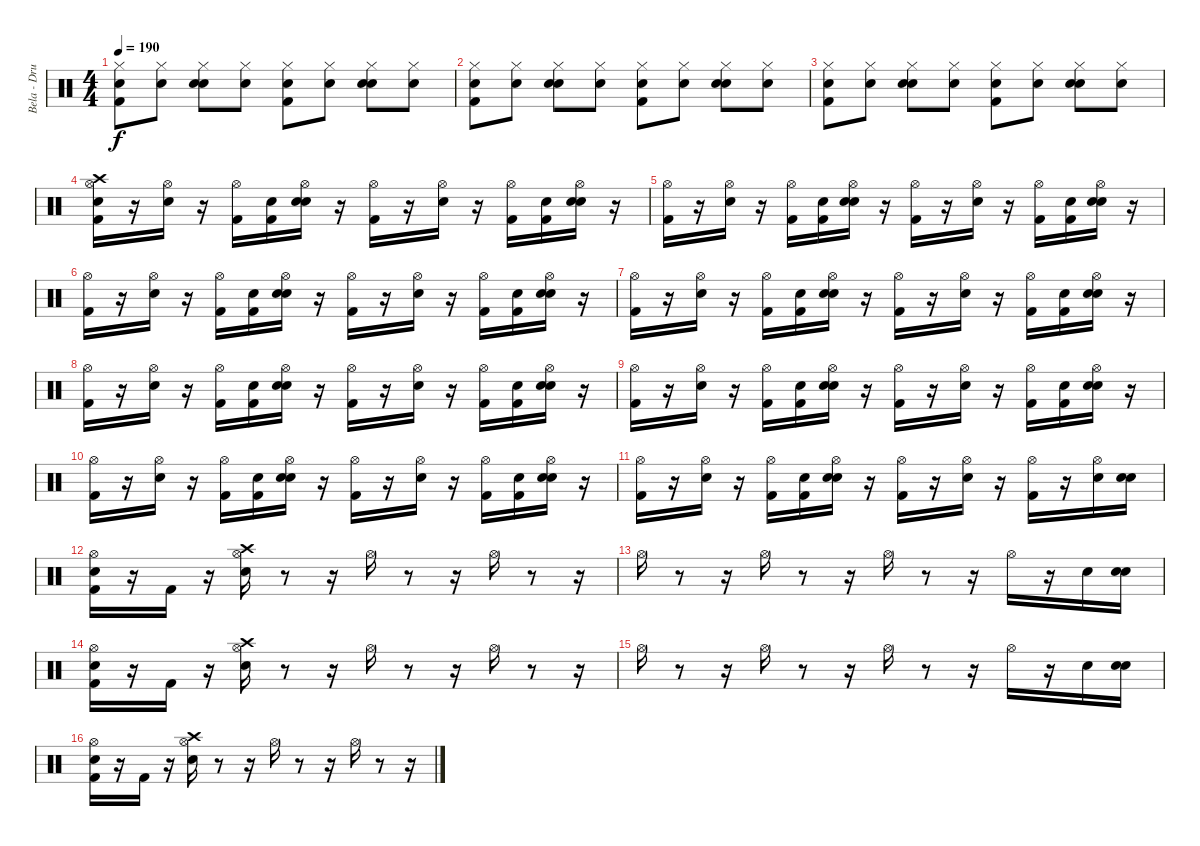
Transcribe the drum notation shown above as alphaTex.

\track ("Bela - Drums" "Bela - Dru") {instrument percussion}
\staff {score}
\articulation defaults
\ts (4 4)
\tempo 190
\clef neutral
\ks c
("Snare (hit)" "Hi-Hat (closed)" "Kick (hit) 2").8{dy f} ("Snare (hit)" "Hi-Hat (closed)").8 ("Snare (hit)" "Hi-Hat (closed)" "Electric Snare (hit)").8 ("Snare (hit)" "Hi-Hat (closed)").8 ("Snare (hit)" "Hi-Hat (closed)" "Kick (hit) 2").8 ("Snare (hit)" "Hi-Hat (closed)").8 ("Snare (hit)" "Hi-Hat (closed)" "Electric Snare (hit)").8 ("Snare (hit)" "Hi-Hat (closed)").8 |
("Snare (hit)" "Hi-Hat (closed)" "Kick (hit) 2").8 ("Snare (hit)" "Hi-Hat (closed)").8 ("Snare (hit)" "Hi-Hat (closed)" "Electric Snare (hit)").8 ("Snare (hit)" "Hi-Hat (closed)").8 ("Snare (hit)" "Hi-Hat (closed)" "Kick (hit) 2").8 ("Snare (hit)" "Hi-Hat (closed)").8 ("Snare (hit)" "Hi-Hat (closed)" "Electric Snare (hit)").8 ("Snare (hit)" "Hi-Hat (closed)").8 |
("Snare (hit)" "Hi-Hat (closed)" "Kick (hit) 2").8 ("Snare (hit)" "Hi-Hat (closed)").8 ("Snare (hit)" "Hi-Hat (closed)" "Electric Snare (hit)").8 ("Snare (hit)" "Hi-Hat (closed)").8 ("Snare (hit)" "Hi-Hat (closed)" "Kick (hit) 2").8 ("Snare (hit)" "Hi-Hat (closed)").8 ("Snare (hit)" "Hi-Hat (closed)" "Electric Snare (hit)").8 ("Snare (hit)" "Hi-Hat (closed)").8 |
("Snare (hit)" "Crash high (hit)" "Hi-Hat (open)" "Kick (hit) 2").16 r.16 ("Hi-Hat (open)" "Electric Snare (hit)").16 r.16 ("Hi-Hat (open)" "Kick (hit) 2").16 ("Snare (hit)" "Kick (hit) 2").16 ("Snare (hit)" "Hi-Hat (open)" "Electric Snare (hit)").16 r.16 ("Kick (hit) 2" "Hi-Hat (open)").16 r.16 ("Hi-Hat (open)" "Electric Snare (hit)").16 r.16 ("Hi-Hat (open)" "Kick (hit) 2").16 ("Snare (hit)" "Kick (hit) 2").16 ("Snare (hit)" "Hi-Hat (open)" "Electric Snare (hit)").16 r.16 |
("Hi-Hat (open)" "Kick (hit) 2").16 r.16 ("Hi-Hat (open)" "Electric Snare (hit)").16 r.16 ("Hi-Hat (open)" "Kick (hit) 2").16 ("Snare (hit)" "Kick (hit) 2").16 ("Snare (hit)" "Hi-Hat (open)" "Electric Snare (hit)").16 r.16 ("Kick (hit) 2" "Hi-Hat (open)").16 r.16 ("Hi-Hat (open)" "Electric Snare (hit)").16 r.16 ("Hi-Hat (open)" "Kick (hit) 2").16 ("Snare (hit)" "Kick (hit) 2").16 ("Snare (hit)" "Hi-Hat (open)" "Electric Snare (hit)").16 r.16 |
("Hi-Hat (open)" "Kick (hit) 2").16 r.16 ("Hi-Hat (open)" "Electric Snare (hit)").16 r.16 ("Hi-Hat (open)" "Kick (hit) 2").16 ("Snare (hit)" "Kick (hit) 2").16 ("Snare (hit)" "Hi-Hat (open)" "Electric Snare (hit)").16 r.16 ("Kick (hit) 2" "Hi-Hat (open)").16 r.16 ("Hi-Hat (open)" "Electric Snare (hit)").16 r.16 ("Hi-Hat (open)" "Kick (hit) 2").16 ("Snare (hit)" "Kick (hit) 2").16 ("Snare (hit)" "Hi-Hat (open)" "Electric Snare (hit)").16 r.16 |
("Hi-Hat (open)" "Kick (hit) 2").16 r.16 ("Hi-Hat (open)" "Electric Snare (hit)").16 r.16 ("Hi-Hat (open)" "Kick (hit) 2").16 ("Snare (hit)" "Kick (hit) 2").16 ("Snare (hit)" "Hi-Hat (open)" "Electric Snare (hit)").16 r.16 ("Kick (hit) 2" "Hi-Hat (open)").16 r.16 ("Hi-Hat (open)" "Electric Snare (hit)").16 r.16 ("Hi-Hat (open)" "Kick (hit) 2").16 ("Snare (hit)" "Kick (hit) 2").16 ("Snare (hit)" "Hi-Hat (open)" "Electric Snare (hit)").16 r.16 |
("Hi-Hat (open)" "Kick (hit) 2").16 r.16 ("Hi-Hat (open)" "Electric Snare (hit)").16 r.16 ("Hi-Hat (open)" "Kick (hit) 2").16 ("Snare (hit)" "Kick (hit) 2").16 ("Snare (hit)" "Hi-Hat (open)" "Electric Snare (hit)").16 r.16 ("Kick (hit) 2" "Hi-Hat (open)").16 r.16 ("Hi-Hat (open)" "Electric Snare (hit)").16 r.16 ("Hi-Hat (open)" "Kick (hit) 2").16 ("Snare (hit)" "Kick (hit) 2").16 ("Snare (hit)" "Hi-Hat (open)" "Electric Snare (hit)").16 r.16 |
("Hi-Hat (open)" "Kick (hit) 2").16 r.16 ("Hi-Hat (open)" "Electric Snare (hit)").16 r.16 ("Hi-Hat (open)" "Kick (hit) 2").16 ("Snare (hit)" "Kick (hit) 2").16 ("Snare (hit)" "Hi-Hat (open)" "Electric Snare (hit)").16 r.16 ("Kick (hit) 2" "Hi-Hat (open)").16 r.16 ("Hi-Hat (open)" "Electric Snare (hit)").16 r.16 ("Hi-Hat (open)" "Kick (hit) 2").16 ("Snare (hit)" "Kick (hit) 2").16 ("Snare (hit)" "Hi-Hat (open)" "Electric Snare (hit)").16 r.16 |
("Hi-Hat (open)" "Kick (hit) 2").16 r.16 ("Hi-Hat (open)" "Electric Snare (hit)").16 r.16 ("Hi-Hat (open)" "Kick (hit) 2").16 ("Snare (hit)" "Kick (hit) 2").16 ("Snare (hit)" "Hi-Hat (open)" "Electric Snare (hit)").16 r.16 ("Kick (hit) 2" "Hi-Hat (open)").16 r.16 ("Hi-Hat (open)" "Electric Snare (hit)").16 r.16 ("Hi-Hat (open)" "Kick (hit) 2").16 ("Snare (hit)" "Kick (hit) 2").16 ("Snare (hit)" "Hi-Hat (open)" "Electric Snare (hit)").16 r.16 |
("Hi-Hat (open)" "Kick (hit) 2").16 r.16 ("Hi-Hat (open)" "Electric Snare (hit)").16 r.16 ("Hi-Hat (open)" "Kick (hit) 2").16 ("Snare (hit)" "Kick (hit) 2").16 ("Snare (hit)" "Hi-Hat (open)" "Electric Snare (hit)").16 r.16 ("Kick (hit) 2" "Hi-Hat (open)").16 r.16 ("Hi-Hat (open)" "Electric Snare (hit)").16 r.16 ("Hi-Hat (open)" "Kick (hit) 2").16 r.16 ("Hi-Hat (open)" "Electric Snare (hit)").16 ("Snare (hit)" "Electric Snare (hit)").16 |
("Snare (hit)" "Hi-Hat (open)" "Kick (hit) 2").16 r.16 "Kick (hit) 2".16 r.16 ("Hi-Hat (open)" "Crash high (hit)" "Electric Snare (hit)").16 r.8 r.16 "Hi-Hat (open)".16 r.8 r.16 "Hi-Hat (open)".16 r.8 r.16 |
"Hi-Hat (open)".16 r.8 r.16 "Hi-Hat (open)".16 r.8 r.16 "Hi-Hat (open)".16 r.8 r.16 "Hi-Hat (open)".16 r.16 "Electric Snare (hit)".16 ("Snare (hit)" "Electric Snare (hit)").16 |
("Snare (hit)" "Hi-Hat (open)" "Kick (hit) 2").16 r.16 "Kick (hit) 2".16 r.16 ("Hi-Hat (open)" "Crash high (hit)" "Electric Snare (hit)").16 r.8 r.16 "Hi-Hat (open)".16 r.8 r.16 "Hi-Hat (open)".16 r.8 r.16 |
"Hi-Hat (open)".16 r.8 r.16 "Hi-Hat (open)".16 r.8 r.16 "Hi-Hat (open)".16 r.8 r.16 "Hi-Hat (open)".16 r.16 "Electric Snare (hit)".16 ("Snare (hit)" "Electric Snare (hit)").16 |
("Snare (hit)" "Hi-Hat (open)" "Kick (hit) 2").16 r.16 "Kick (hit) 2".16 r.16 ("Hi-Hat (open)" "Crash high (hit)" "Electric Snare (hit)").16 r.8 r.16 "Hi-Hat (open)".16 r.8 r.16 "Hi-Hat (open)".16 r.8 r.16
